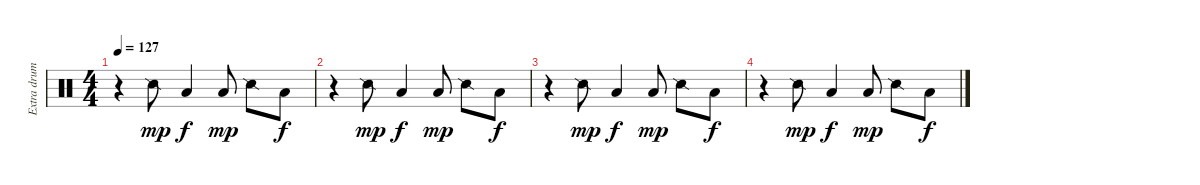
\track ("Extra drums" "Extra drum") {instrument percussion}
\staff {score}
\articulation defaults
\ts (4 4)
\tempo 127
\clef neutral
\ks c
r.4{dy f} "Snare (side stick) 2".8{dy mp} "Low Tom (hit)".4{dy f} "Low Tom (hit)".8{dy mp} "Snare (side stick) 2".8 "Low Tom (hit)".8{dy f} |
r.4 "Snare (side stick) 2".8{dy mp} "Low Tom (hit)".4{dy f} "Low Tom (hit)".8{dy mp} "Snare (side stick) 2".8 "Low Tom (hit)".8{dy f} |
r.4 "Snare (side stick) 2".8{dy mp} "Low Tom (hit)".4{dy f} "Low Tom (hit)".8{dy mp} "Snare (side stick) 2".8 "Low Tom (hit)".8{dy f} |
r.4 "Snare (side stick) 2".8{dy mp} "Low Tom (hit)".4{dy f} "Low Tom (hit)".8{dy mp} "Snare (side stick) 2".8 "Low Tom (hit)".8{dy f}
